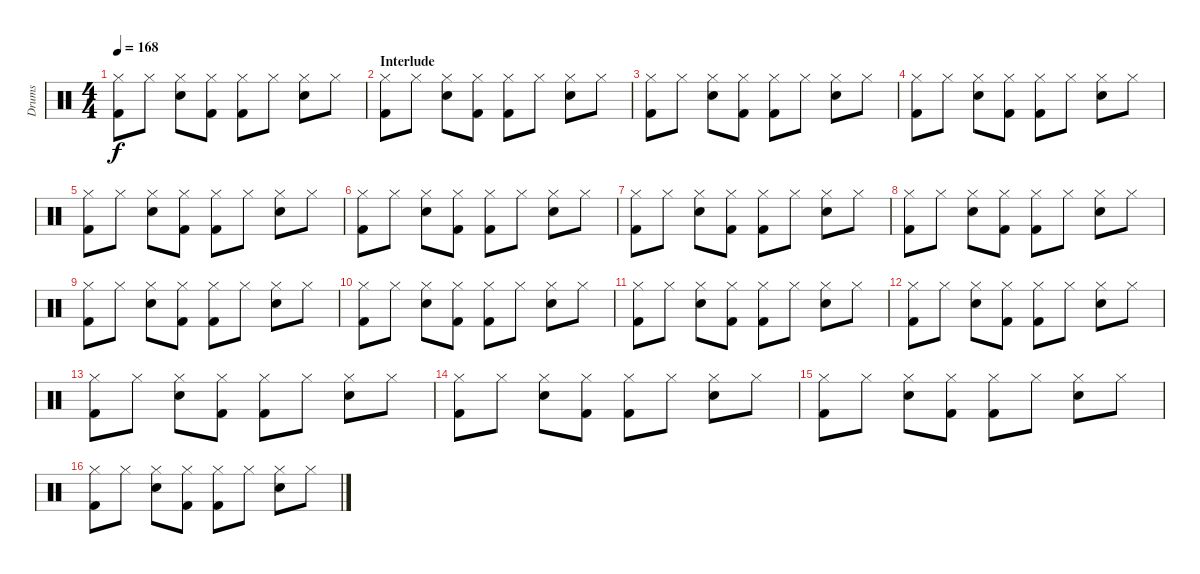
\track ("Drums" "Drums") {instrument percussion}
\staff {score}
\articulation defaults
\ts (4 4)
\tempo 168
\clef neutral
\ks c
("Kick (hit) 2" "Hi-Hat (closed)").8{dy f} "Hi-Hat (closed)".8 ("Snare (hit) 2" "Hi-Hat (closed)").8 ("Kick (hit) 2" "Hi-Hat (closed)").8 ("Kick (hit) 2" "Hi-Hat (closed)").8 "Hi-Hat (closed)".8 ("Snare (hit) 2" "Hi-Hat (closed)").8 "Hi-Hat (closed)".8 |
\section ("" "Interlude")
("Kick (hit) 2" "Hi-Hat (closed)").8 "Hi-Hat (closed)".8 ("Snare (hit) 2" "Hi-Hat (closed)").8 ("Kick (hit) 2" "Hi-Hat (closed)").8 ("Kick (hit) 2" "Hi-Hat (closed)").8 "Hi-Hat (closed)".8 ("Snare (hit) 2" "Hi-Hat (closed)").8 "Hi-Hat (closed)".8 |
("Kick (hit) 2" "Hi-Hat (closed)").8 "Hi-Hat (closed)".8 ("Snare (hit) 2" "Hi-Hat (closed)").8 ("Kick (hit) 2" "Hi-Hat (closed)").8 ("Kick (hit) 2" "Hi-Hat (closed)").8 "Hi-Hat (closed)".8 ("Snare (hit) 2" "Hi-Hat (closed)").8 "Hi-Hat (closed)".8 |
("Kick (hit) 2" "Hi-Hat (closed)").8 "Hi-Hat (closed)".8 ("Snare (hit) 2" "Hi-Hat (closed)").8 ("Kick (hit) 2" "Hi-Hat (closed)").8 ("Kick (hit) 2" "Hi-Hat (closed)").8 "Hi-Hat (closed)".8 ("Snare (hit) 2" "Hi-Hat (closed)").8 "Hi-Hat (closed)".8 |
("Kick (hit) 2" "Hi-Hat (closed)").8 "Hi-Hat (closed)".8 ("Snare (hit) 2" "Hi-Hat (closed)").8 ("Kick (hit) 2" "Hi-Hat (closed)").8 ("Kick (hit) 2" "Hi-Hat (closed)").8 "Hi-Hat (closed)".8 ("Snare (hit) 2" "Hi-Hat (closed)").8 "Hi-Hat (closed)".8 |
("Kick (hit) 2" "Hi-Hat (closed)").8 "Hi-Hat (closed)".8 ("Snare (hit) 2" "Hi-Hat (closed)").8 ("Kick (hit) 2" "Hi-Hat (closed)").8 ("Kick (hit) 2" "Hi-Hat (closed)").8 "Hi-Hat (closed)".8 ("Snare (hit) 2" "Hi-Hat (closed)").8 "Hi-Hat (closed)".8 |
("Kick (hit) 2" "Hi-Hat (closed)").8 "Hi-Hat (closed)".8 ("Snare (hit) 2" "Hi-Hat (closed)").8 ("Kick (hit) 2" "Hi-Hat (closed)").8 ("Kick (hit) 2" "Hi-Hat (closed)").8 "Hi-Hat (closed)".8 ("Snare (hit) 2" "Hi-Hat (closed)").8 "Hi-Hat (closed)".8 |
("Kick (hit) 2" "Hi-Hat (closed)").8 "Hi-Hat (closed)".8 ("Snare (hit) 2" "Hi-Hat (closed)").8 ("Kick (hit) 2" "Hi-Hat (closed)").8 ("Kick (hit) 2" "Hi-Hat (closed)").8 "Hi-Hat (closed)".8 ("Snare (hit) 2" "Hi-Hat (closed)").8 "Hi-Hat (closed)".8 |
("Kick (hit) 2" "Hi-Hat (closed)").8 "Hi-Hat (closed)".8 ("Snare (hit) 2" "Hi-Hat (closed)").8 ("Kick (hit) 2" "Hi-Hat (closed)").8 ("Kick (hit) 2" "Hi-Hat (closed)").8 "Hi-Hat (closed)".8 ("Snare (hit) 2" "Hi-Hat (closed)").8 "Hi-Hat (closed)".8 |
("Kick (hit) 2" "Hi-Hat (closed)").8 "Hi-Hat (closed)".8 ("Snare (hit) 2" "Hi-Hat (closed)").8 ("Kick (hit) 2" "Hi-Hat (closed)").8 ("Kick (hit) 2" "Hi-Hat (closed)").8 "Hi-Hat (closed)".8 ("Snare (hit) 2" "Hi-Hat (closed)").8 "Hi-Hat (closed)".8 |
("Kick (hit) 2" "Hi-Hat (closed)").8 "Hi-Hat (closed)".8 ("Snare (hit) 2" "Hi-Hat (closed)").8 ("Kick (hit) 2" "Hi-Hat (closed)").8 ("Kick (hit) 2" "Hi-Hat (closed)").8 "Hi-Hat (closed)".8 ("Snare (hit) 2" "Hi-Hat (closed)").8 "Hi-Hat (closed)".8 |
("Kick (hit) 2" "Hi-Hat (closed)").8 "Hi-Hat (closed)".8 ("Snare (hit) 2" "Hi-Hat (closed)").8 ("Kick (hit) 2" "Hi-Hat (closed)").8 ("Kick (hit) 2" "Hi-Hat (closed)").8 "Hi-Hat (closed)".8 ("Snare (hit) 2" "Hi-Hat (closed)").8 "Hi-Hat (closed)".8 |
("Kick (hit) 2" "Hi-Hat (closed)").8 "Hi-Hat (closed)".8 ("Snare (hit) 2" "Hi-Hat (closed)").8 ("Kick (hit) 2" "Hi-Hat (closed)").8 ("Kick (hit) 2" "Hi-Hat (closed)").8 "Hi-Hat (closed)".8 ("Snare (hit) 2" "Hi-Hat (closed)").8 "Hi-Hat (closed)".8 |
("Kick (hit) 2" "Hi-Hat (closed)").8 "Hi-Hat (closed)".8 ("Snare (hit) 2" "Hi-Hat (closed)").8 ("Kick (hit) 2" "Hi-Hat (closed)").8 ("Kick (hit) 2" "Hi-Hat (closed)").8 "Hi-Hat (closed)".8 ("Snare (hit) 2" "Hi-Hat (closed)").8 "Hi-Hat (closed)".8 |
("Kick (hit) 2" "Hi-Hat (closed)").8 "Hi-Hat (closed)".8 ("Snare (hit) 2" "Hi-Hat (closed)").8 ("Kick (hit) 2" "Hi-Hat (closed)").8 ("Kick (hit) 2" "Hi-Hat (closed)").8 "Hi-Hat (closed)".8 ("Snare (hit) 2" "Hi-Hat (closed)").8 "Hi-Hat (closed)".8 |
("Kick (hit) 2" "Hi-Hat (closed)").8 "Hi-Hat (closed)".8 ("Snare (hit) 2" "Hi-Hat (closed)").8 ("Kick (hit) 2" "Hi-Hat (closed)").8 ("Kick (hit) 2" "Hi-Hat (closed)").8 "Hi-Hat (closed)".8 ("Snare (hit) 2" "Hi-Hat (closed)").8 "Hi-Hat (closed)".8
